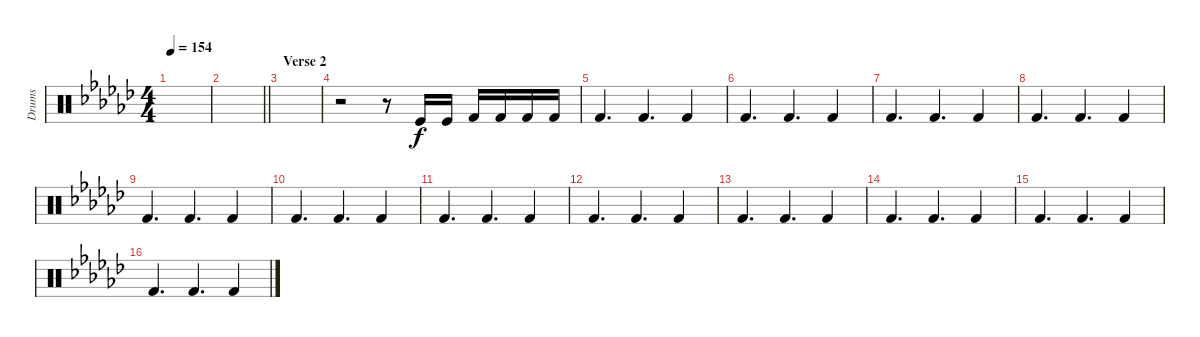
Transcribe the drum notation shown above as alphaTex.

\track ("Drums" "Drums") {instrument percussion}
\staff {score}
\articulation defaults
\ts (4 4)
\tempo 154
\clef neutral
\ks gb
|
\barLineRight lightlight
|
\section ("" "Verse 2")
|
r.2 r.8 "Kick (hit)".16 "Kick (hit)".16 "Kick (hit) 2".16 "Kick (hit) 2".16 "Kick (hit) 2".16 "Kick (hit) 2".16 |
"Kick (hit) 2".4{d} "Kick (hit) 2".4{d} "Kick (hit) 2".4 |
"Kick (hit) 2".4{d} "Kick (hit) 2".4{d} "Kick (hit) 2".4 |
"Kick (hit) 2".4{d} "Kick (hit) 2".4{d} "Kick (hit) 2".4 |
"Kick (hit) 2".4{d} "Kick (hit) 2".4{d} "Kick (hit) 2".4 |
"Kick (hit) 2".4{d} "Kick (hit) 2".4{d} "Kick (hit) 2".4 |
"Kick (hit) 2".4{d} "Kick (hit) 2".4{d} "Kick (hit) 2".4 |
"Kick (hit) 2".4{d} "Kick (hit) 2".4{d} "Kick (hit) 2".4 |
"Kick (hit) 2".4{d} "Kick (hit) 2".4{d} "Kick (hit) 2".4 |
"Kick (hit) 2".4{d} "Kick (hit) 2".4{d} "Kick (hit) 2".4 |
"Kick (hit) 2".4{d} "Kick (hit) 2".4{d} "Kick (hit) 2".4 |
"Kick (hit) 2".4{d} "Kick (hit) 2".4{d} "Kick (hit) 2".4 |
"Kick (hit) 2".4{d} "Kick (hit) 2".4{d} "Kick (hit) 2".4
